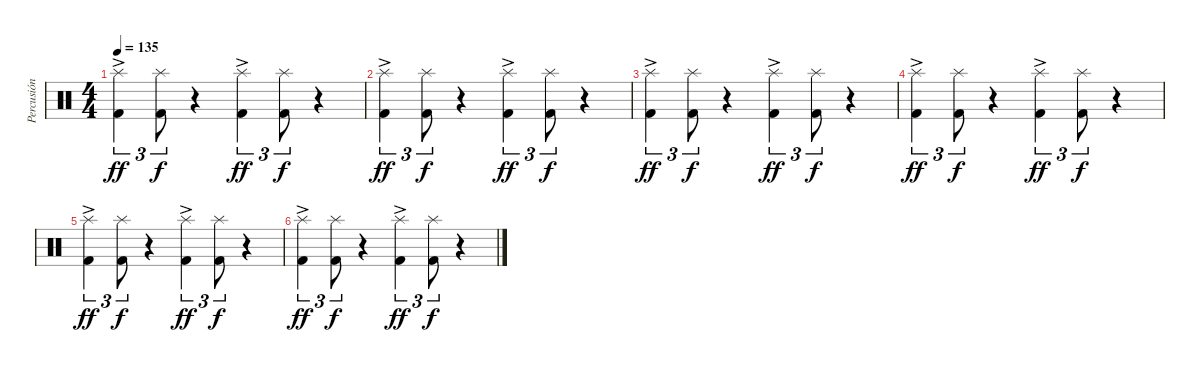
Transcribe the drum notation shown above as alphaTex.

\track ("Percusión" "Percusión") {instrument percussion}
\staff {score}
\articulation defaults
\ts (4 4)
\tempo 135
\clef neutral
\ks c
("Splash (hit)"{ac} "Kick (hit) 2"{ac}).4{tu (3 2) dy ff} ("Splash (hit)" "Kick (hit) 2").8{tu (3 2) dy f} r.4 ("Splash (hit)"{ac} "Kick (hit) 2"{ac}).4{tu (3 2) dy ff} ("Splash (hit)" "Kick (hit) 2").8{tu (3 2) dy f} r.4 |
("Splash (hit)"{ac} "Kick (hit) 2"{ac}).4{tu (3 2) dy ff} ("Splash (hit)" "Kick (hit) 2").8{tu (3 2) dy f} r.4 ("Splash (hit)"{ac} "Kick (hit) 2"{ac}).4{tu (3 2) dy ff} ("Splash (hit)" "Kick (hit) 2").8{tu (3 2) dy f} r.4 |
("Splash (hit)"{ac} "Kick (hit) 2"{ac}).4{tu (3 2) dy ff} ("Splash (hit)" "Kick (hit) 2").8{tu (3 2) dy f} r.4 ("Splash (hit)"{ac} "Kick (hit) 2"{ac}).4{tu (3 2) dy ff} ("Splash (hit)" "Kick (hit) 2").8{tu (3 2) dy f} r.4 |
("Splash (hit)"{ac} "Kick (hit) 2"{ac}).4{tu (3 2) dy ff} ("Splash (hit)" "Kick (hit) 2").8{tu (3 2) dy f} r.4 ("Splash (hit)"{ac} "Kick (hit) 2"{ac}).4{tu (3 2) dy ff} ("Splash (hit)" "Kick (hit) 2").8{tu (3 2) dy f} r.4 |
("Splash (hit)"{ac} "Kick (hit) 2"{ac}).4{tu (3 2) dy ff} ("Splash (hit)" "Kick (hit) 2").8{tu (3 2) dy f} r.4 ("Splash (hit)"{ac} "Kick (hit) 2"{ac}).4{tu (3 2) dy ff} ("Splash (hit)" "Kick (hit) 2").8{tu (3 2) dy f} r.4 |
("Splash (hit)"{ac} "Kick (hit) 2"{ac}).4{tu (3 2) dy ff} ("Splash (hit)" "Kick (hit) 2").8{tu (3 2) dy f} r.4 ("Splash (hit)"{ac} "Kick (hit) 2"{ac}).4{tu (3 2) dy ff} ("Splash (hit)" "Kick (hit) 2").8{tu (3 2) dy f} r.4
